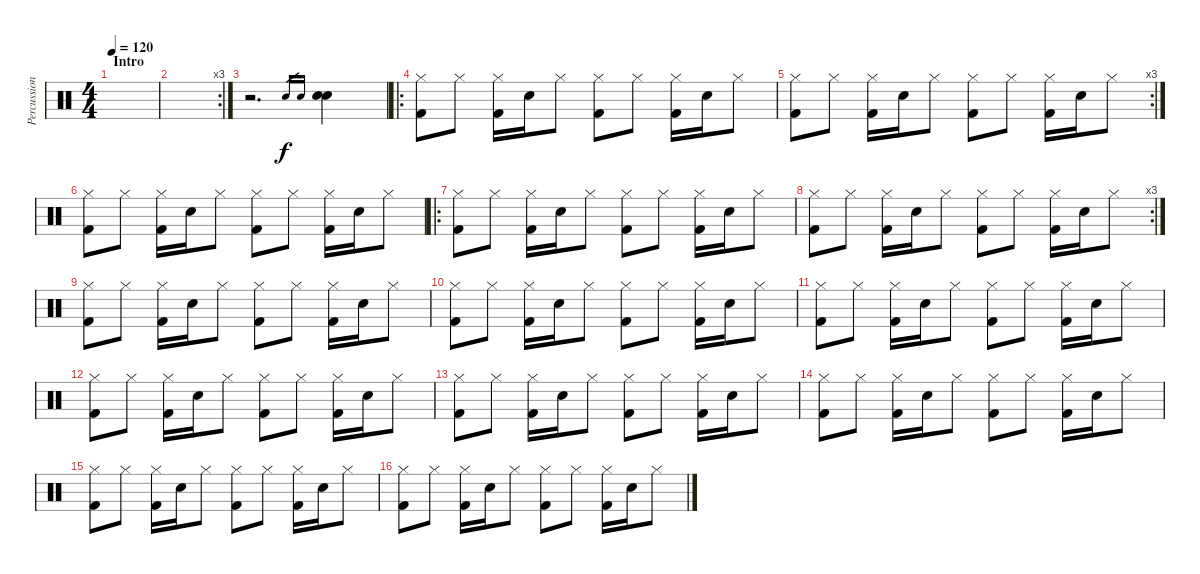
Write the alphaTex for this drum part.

\track ("Percussions" "Percussion") {instrument percussion}
\staff {score}
\articulation defaults
\ts (4 4)
\section ("" "Intro")
\tempo 120
\clef neutral
\ks c
|
\rc 3
|
r.2{d} "Snare (hit) 2".16{gr} "Snare (hit) 2".16{gr} ("Snare (hit) 2" "Snare (hit) 2").4 |
\ro
("Hi-Hat (closed)" "Kick (hit) 2").8 "Hi-Hat (closed)".8 ("Hi-Hat (closed)" "Kick (hit) 2").16 "Snare (hit) 2".16 "Hi-Hat (closed)".8 ("Hi-Hat (closed)" "Kick (hit) 2").8 "Hi-Hat (closed)".8 ("Hi-Hat (closed)" "Kick (hit) 2").16 "Snare (hit) 2".16 "Hi-Hat (closed)".8 |
\rc 3
("Hi-Hat (closed)" "Kick (hit) 2").8 "Hi-Hat (closed)".8 ("Hi-Hat (closed)" "Kick (hit) 2").16 "Snare (hit) 2".16 "Hi-Hat (closed)".8 ("Hi-Hat (closed)" "Kick (hit) 2").8 "Hi-Hat (closed)".8 ("Hi-Hat (closed)" "Kick (hit) 2").16 "Snare (hit) 2".16 "Hi-Hat (closed)".8 |
("Hi-Hat (closed)" "Kick (hit) 2").8 "Hi-Hat (closed)".8 ("Hi-Hat (closed)" "Kick (hit) 2").16 "Snare (hit) 2".16 "Hi-Hat (closed)".8 ("Hi-Hat (closed)" "Kick (hit) 2").8 "Hi-Hat (closed)".8 ("Hi-Hat (closed)" "Kick (hit) 2").16 "Snare (hit) 2".16 "Hi-Hat (closed)".8 |
\ro
("Hi-Hat (closed)" "Kick (hit) 2").8 "Hi-Hat (closed)".8 ("Hi-Hat (closed)" "Kick (hit) 2").16 "Snare (hit) 2".16 "Hi-Hat (closed)".8 ("Hi-Hat (closed)" "Kick (hit) 2").8 "Hi-Hat (closed)".8 ("Hi-Hat (closed)" "Kick (hit) 2").16 "Snare (hit) 2".16 "Hi-Hat (closed)".8 |
\rc 3
("Hi-Hat (closed)" "Kick (hit) 2").8 "Hi-Hat (closed)".8 ("Hi-Hat (closed)" "Kick (hit) 2").16 "Snare (hit) 2".16 "Hi-Hat (closed)".8 ("Hi-Hat (closed)" "Kick (hit) 2").8 "Hi-Hat (closed)".8 ("Hi-Hat (closed)" "Kick (hit) 2").16 "Snare (hit) 2".16 "Hi-Hat (closed)".8 |
("Hi-Hat (closed)" "Kick (hit) 2").8 "Hi-Hat (closed)".8 ("Hi-Hat (closed)" "Kick (hit) 2").16 "Snare (hit) 2".16 "Hi-Hat (closed)".8 ("Hi-Hat (closed)" "Kick (hit) 2").8 "Hi-Hat (closed)".8 ("Hi-Hat (closed)" "Kick (hit) 2").16 "Snare (hit) 2".16 "Hi-Hat (closed)".8 |
("Hi-Hat (closed)" "Kick (hit) 2").8 "Hi-Hat (closed)".8 ("Hi-Hat (closed)" "Kick (hit) 2").16 "Snare (hit) 2".16 "Hi-Hat (closed)".8 ("Hi-Hat (closed)" "Kick (hit) 2").8 "Hi-Hat (closed)".8 ("Hi-Hat (closed)" "Kick (hit) 2").16 "Snare (hit) 2".16 "Hi-Hat (closed)".8 |
("Hi-Hat (closed)" "Kick (hit) 2").8 "Hi-Hat (closed)".8 ("Hi-Hat (closed)" "Kick (hit) 2").16 "Snare (hit) 2".16 "Hi-Hat (closed)".8 ("Hi-Hat (closed)" "Kick (hit) 2").8 "Hi-Hat (closed)".8 ("Hi-Hat (closed)" "Kick (hit) 2").16 "Snare (hit) 2".16 "Hi-Hat (closed)".8 |
("Hi-Hat (closed)" "Kick (hit) 2").8 "Hi-Hat (closed)".8 ("Hi-Hat (closed)" "Kick (hit) 2").16 "Snare (hit) 2".16 "Hi-Hat (closed)".8 ("Hi-Hat (closed)" "Kick (hit) 2").8 "Hi-Hat (closed)".8 ("Hi-Hat (closed)" "Kick (hit) 2").16 "Snare (hit) 2".16 "Hi-Hat (closed)".8 |
("Hi-Hat (closed)" "Kick (hit) 2").8 "Hi-Hat (closed)".8 ("Hi-Hat (closed)" "Kick (hit) 2").16 "Snare (hit) 2".16 "Hi-Hat (closed)".8 ("Hi-Hat (closed)" "Kick (hit) 2").8 "Hi-Hat (closed)".8 ("Hi-Hat (closed)" "Kick (hit) 2").16 "Snare (hit) 2".16 "Hi-Hat (closed)".8 |
("Hi-Hat (closed)" "Kick (hit) 2").8 "Hi-Hat (closed)".8 ("Hi-Hat (closed)" "Kick (hit) 2").16 "Snare (hit) 2".16 "Hi-Hat (closed)".8 ("Hi-Hat (closed)" "Kick (hit) 2").8 "Hi-Hat (closed)".8 ("Hi-Hat (closed)" "Kick (hit) 2").16 "Snare (hit) 2".16 "Hi-Hat (closed)".8 |
("Hi-Hat (closed)" "Kick (hit) 2").8 "Hi-Hat (closed)".8 ("Hi-Hat (closed)" "Kick (hit) 2").16 "Snare (hit) 2".16 "Hi-Hat (closed)".8 ("Hi-Hat (closed)" "Kick (hit) 2").8 "Hi-Hat (closed)".8 ("Hi-Hat (closed)" "Kick (hit) 2").16 "Snare (hit) 2".16 "Hi-Hat (closed)".8 |
("Hi-Hat (closed)" "Kick (hit) 2").8 "Hi-Hat (closed)".8 ("Hi-Hat (closed)" "Kick (hit) 2").16 "Snare (hit) 2".16 "Hi-Hat (closed)".8 ("Hi-Hat (closed)" "Kick (hit) 2").8 "Hi-Hat (closed)".8 ("Hi-Hat (closed)" "Kick (hit) 2").16 "Snare (hit) 2".16 "Hi-Hat (closed)".8
